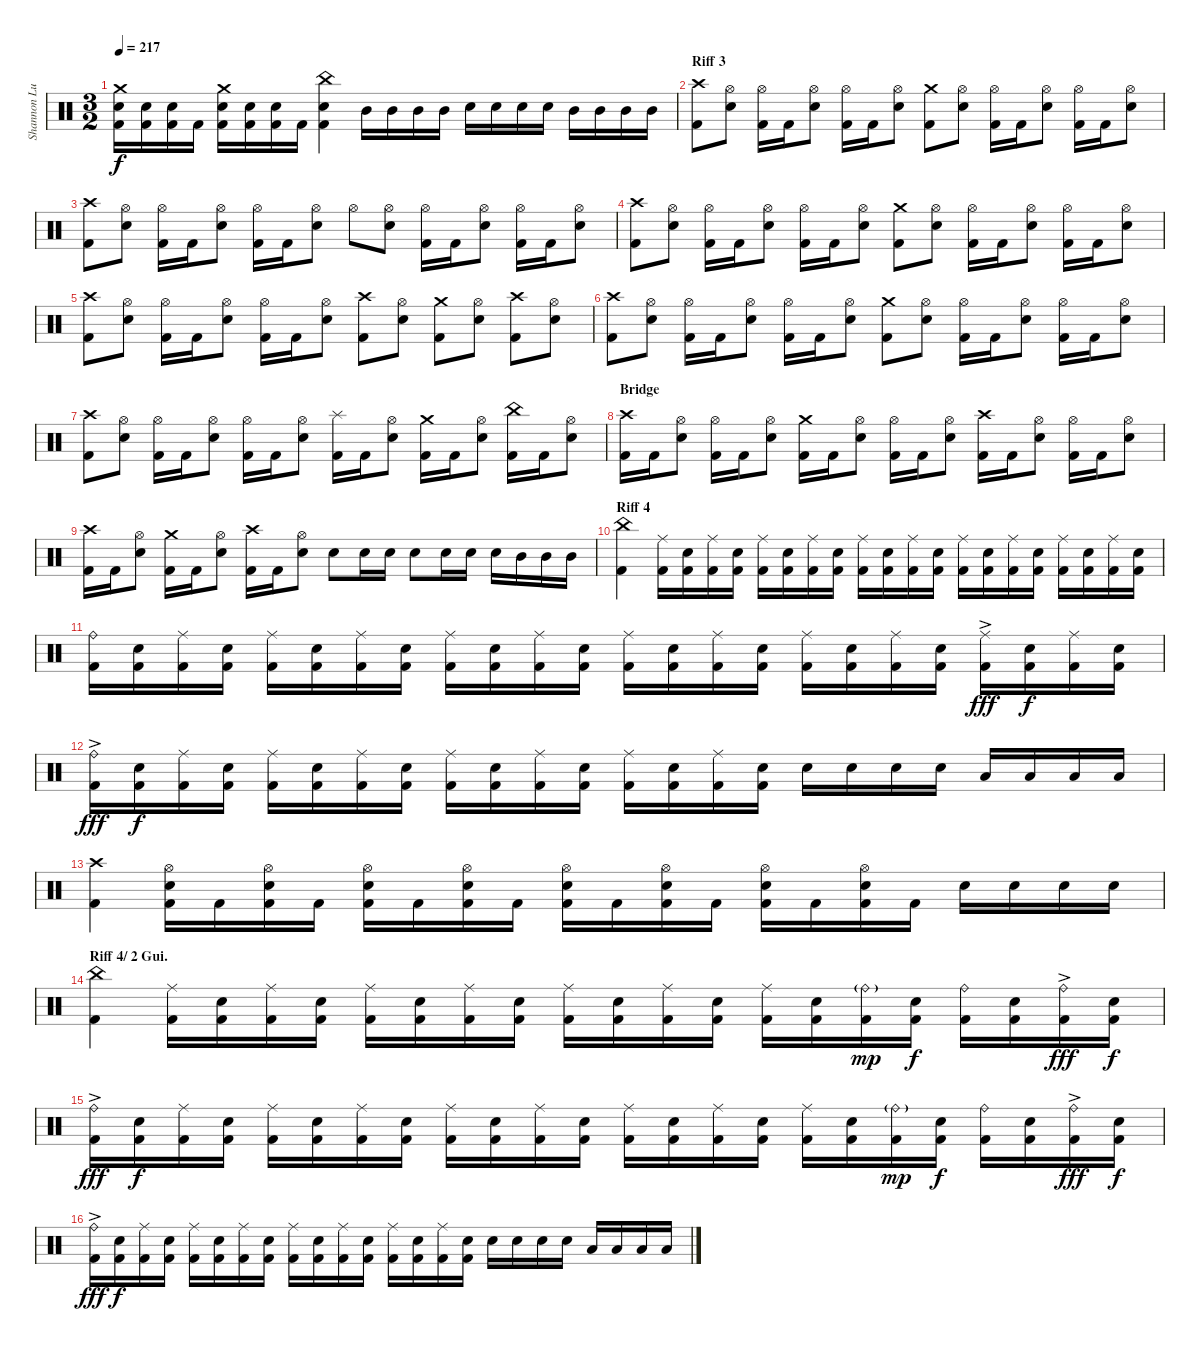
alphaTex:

\track ("Shannon Lucas (Drums)" "Shannon Lu") {instrument percussion}
\staff {score}
\articulation defaults
\ts (3 2)
\tempo 217
\clef neutral
\ks c
("Crash medium (hit)" "Snare (hit) 2" "Kick (hit) 2").16{dy f} ("Snare (hit) 2" "Kick (hit) 2").16 ("Snare (hit) 2" "Kick (hit) 2").16 "Kick (hit) 2".16 ("Crash medium (hit)" "Snare (hit) 2" "Kick (hit) 2").16 ("Snare (hit) 2" "Kick (hit) 2").16 ("Snare (hit) 2" "Kick (hit) 2").16 "Kick (hit) 2".16 ("China (hit)" "Snare (hit) 2" "Kick (hit) 2").4 "Mid Tom (hit)".16 "Mid Tom (hit)".16 "Mid Tom (hit)".16 "Mid Tom (hit)".16 "Snare (hit) 2".16 "Snare (hit) 2".16 "Snare (hit) 2".16 "Snare (hit) 2".16 "Mid Tom (hit)".16 "Mid Tom (hit)".16 "Mid Tom (hit)".16 "Mid Tom (hit)".16 |
\section ("" "Riff 3")
("Crash high (hit)" "Kick (hit) 2").8 ("Hi-Hat (open)" "Snare (hit) 2").8 ("Hi-Hat (open)" "Kick (hit) 2").16 "Kick (hit) 2".16 ("Hi-Hat (open)" "Snare (hit) 2").8 ("Hi-Hat (open)" "Kick (hit) 2").16 "Kick (hit) 2".16 ("Hi-Hat (open)" "Snare (hit) 2").8 ("Crash medium (hit)" "Kick (hit) 2").8 ("Hi-Hat (open)" "Snare (hit) 2").8 ("Hi-Hat (open)" "Kick (hit) 2").16 "Kick (hit) 2".16 ("Hi-Hat (open)" "Snare (hit) 2").8 ("Hi-Hat (open)" "Kick (hit) 2").16 "Kick (hit) 2".16 ("Hi-Hat (open)" "Snare (hit) 2").8 |
("Crash high (hit)" "Kick (hit) 2").8 ("Hi-Hat (open)" "Snare (hit) 2").8 ("Hi-Hat (open)" "Kick (hit) 2").16 "Kick (hit) 2".16 ("Hi-Hat (open)" "Snare (hit) 2").8 ("Hi-Hat (open)" "Kick (hit) 2").16 "Kick (hit) 2".16 ("Hi-Hat (open)" "Snare (hit) 2").8 "Hi-Hat (open)".8 ("Hi-Hat (open)" "Snare (hit) 2").8 ("Hi-Hat (open)" "Kick (hit) 2").16 "Kick (hit) 2".16 ("Hi-Hat (open)" "Snare (hit) 2").8 ("Hi-Hat (open)" "Kick (hit) 2").16 "Kick (hit) 2".16 ("Hi-Hat (open)" "Snare (hit) 2").8 |
("Crash high (hit)" "Kick (hit) 2").8 ("Hi-Hat (open)" "Snare (hit) 2").8 ("Hi-Hat (open)" "Kick (hit) 2").16 "Kick (hit) 2".16 ("Hi-Hat (open)" "Snare (hit) 2").8 ("Hi-Hat (open)" "Kick (hit) 2").16 "Kick (hit) 2".16 ("Hi-Hat (open)" "Snare (hit) 2").8 ("Crash medium (hit)" "Kick (hit) 2").8 ("Hi-Hat (open)" "Snare (hit) 2").8 ("Hi-Hat (open)" "Kick (hit) 2").16 "Kick (hit) 2".16 ("Hi-Hat (open)" "Snare (hit) 2").8 ("Hi-Hat (open)" "Kick (hit) 2").16 "Kick (hit) 2".16 ("Hi-Hat (open)" "Snare (hit) 2").8 |
("Crash high (hit)" "Kick (hit) 2").8 ("Hi-Hat (open)" "Snare (hit) 2").8 ("Hi-Hat (open)" "Kick (hit) 2").16 "Kick (hit) 2".16 ("Hi-Hat (open)" "Snare (hit) 2").8 ("Hi-Hat (open)" "Kick (hit) 2").16 "Kick (hit) 2".16 ("Hi-Hat (open)" "Snare (hit) 2").8 ("Crash high (hit)" "Kick (hit) 2").8 ("Hi-Hat (open)" "Snare (hit) 2").8 ("Crash medium (hit)" "Kick (hit) 2").8 ("Hi-Hat (open)" "Snare (hit) 2").8 ("Crash high (hit)" "Kick (hit) 2").8 ("Hi-Hat (open)" "Snare (hit) 2").8 |
("Crash high (hit)" "Kick (hit) 2").8 ("Hi-Hat (open)" "Snare (hit) 2").8 ("Hi-Hat (open)" "Kick (hit) 2").16 "Kick (hit) 2".16 ("Hi-Hat (open)" "Snare (hit) 2").8 ("Hi-Hat (open)" "Kick (hit) 2").16 "Kick (hit) 2".16 ("Hi-Hat (open)" "Snare (hit) 2").8 ("Crash medium (hit)" "Kick (hit) 2").8 ("Hi-Hat (open)" "Snare (hit) 2").8 ("Hi-Hat (open)" "Kick (hit) 2").16 "Kick (hit) 2".16 ("Hi-Hat (open)" "Snare (hit) 2").8 ("Hi-Hat (open)" "Kick (hit) 2").16 "Kick (hit) 2".16 ("Hi-Hat (open)" "Snare (hit) 2").8 |
("Crash high (hit)" "Kick (hit) 2").8 ("Hi-Hat (open)" "Snare (hit) 2").8 ("Hi-Hat (open)" "Kick (hit) 2").16 "Kick (hit) 2".16 ("Hi-Hat (open)" "Snare (hit) 2").8 ("Hi-Hat (open)" "Kick (hit) 2").16 "Kick (hit) 2".16 ("Hi-Hat (open)" "Snare (hit) 2").8 ("Splash (hit)" "Kick (hit) 2").16 "Kick (hit) 2".16 ("Hi-Hat (open)" "Snare (hit) 2").8 ("Crash medium (hit)" "Kick (hit) 2").16 "Kick (hit) 2".16 ("Hi-Hat (open)" "Snare (hit) 2").8 ("China (hit)" "Kick (hit) 2").16 "Kick (hit) 2".16 ("Hi-Hat (open)" "Snare (hit) 2").8 |
\section ("" "Bridge")
("Crash high (hit)" "Kick (hit) 2").16 "Kick (hit) 2".16 ("Hi-Hat (open)" "Snare (hit) 2").8 ("Hi-Hat (open)" "Kick (hit) 2").16 "Kick (hit) 2".16 ("Hi-Hat (open)" "Snare (hit) 2").8 ("Crash medium (hit)" "Kick (hit) 2").16 "Kick (hit) 2".16 ("Hi-Hat (open)" "Snare (hit) 2").8 ("Hi-Hat (open)" "Kick (hit) 2").16 "Kick (hit) 2".16 ("Hi-Hat (open)" "Snare (hit) 2").8 ("Crash high (hit)" "Kick (hit) 2").16 "Kick (hit) 2".16 ("Hi-Hat (open)" "Snare (hit) 2").8 ("Hi-Hat (open)" "Kick (hit) 2").16 "Kick (hit) 2".16 ("Hi-Hat (open)" "Snare (hit) 2").8 |
("Crash high (hit)" "Kick (hit) 2").16 "Kick (hit) 2".16 ("Hi-Hat (open)" "Snare (hit) 2").8 ("Crash medium (hit)" "Kick (hit) 2").16 "Kick (hit) 2".16 ("Hi-Hat (open)" "Snare (hit) 2").8 ("Crash high (hit)" "Kick (hit) 2").16 "Kick (hit) 2".16 ("Hi-Hat (open)" "Snare (hit) 2").8 "Snare (hit) 2".8 "Snare (hit) 2".16 "Snare (hit) 2".16 "Snare (hit) 2".8 "Snare (hit) 2".16 "Snare (hit) 2".16 "Snare (hit) 2".16 "Mid Tom (hit)".16 "Mid Tom (hit)".16 "Mid Tom (hit)".16 |
\section ("" "Riff 4")
("China (hit)" "Kick (hit) 2").4 ("Ride (middle)" "Kick (hit) 2").16 ("Snare (hit) 2" "Kick (hit) 2").16 ("Ride (middle)" "Kick (hit) 2").16 ("Snare (hit) 2" "Kick (hit) 2").16 ("Ride (middle)" "Kick (hit) 2").16 ("Snare (hit) 2" "Kick (hit) 2").16 ("Ride (middle)" "Kick (hit) 2").16 ("Snare (hit) 2" "Kick (hit) 2").16 ("Ride (middle)" "Kick (hit) 2").16 ("Snare (hit) 2" "Kick (hit) 2").16 ("Ride (middle)" "Kick (hit) 2").16 ("Snare (hit) 2" "Kick (hit) 2").16 ("Ride (middle)" "Kick (hit) 2").16 ("Snare (hit) 2" "Kick (hit) 2").16 ("Ride (middle)" "Kick (hit) 2").16 ("Snare (hit) 2" "Kick (hit) 2").16 ("Ride (middle)" "Kick (hit) 2").16 ("Snare (hit) 2" "Kick (hit) 2").16 ("Ride (middle)" "Kick (hit) 2").16 ("Snare (hit) 2" "Kick (hit) 2").16 |
("Ride (bell)" "Kick (hit) 2").16 ("Snare (hit) 2" "Kick (hit) 2").16 ("Ride (middle)" "Kick (hit) 2").16 ("Snare (hit) 2" "Kick (hit) 2").16 ("Ride (middle)" "Kick (hit) 2").16 ("Snare (hit) 2" "Kick (hit) 2").16 ("Ride (middle)" "Kick (hit) 2").16 ("Snare (hit) 2" "Kick (hit) 2").16 ("Ride (middle)" "Kick (hit) 2").16 ("Snare (hit) 2" "Kick (hit) 2").16 ("Ride (middle)" "Kick (hit) 2").16 ("Snare (hit) 2" "Kick (hit) 2").16 ("Ride (middle)" "Kick (hit) 2").16 ("Snare (hit) 2" "Kick (hit) 2").16 ("Ride (middle)" "Kick (hit) 2").16 ("Snare (hit) 2" "Kick (hit) 2").16 ("Ride (middle)" "Kick (hit) 2").16 ("Snare (hit) 2" "Kick (hit) 2").16 ("Ride (middle)" "Kick (hit) 2").16 ("Snare (hit) 2" "Kick (hit) 2").16 ("Ride (middle)"{ac} "Kick (hit) 2").16{dy fff} ("Snare (hit) 2" "Kick (hit) 2").16{dy f} ("Ride (middle)" "Kick (hit) 2").16 ("Snare (hit) 2" "Kick (hit) 2").16 |
("Ride (bell)"{ac} "Kick (hit) 2").16{dy fff} ("Snare (hit) 2" "Kick (hit) 2").16{dy f} ("Ride (middle)" "Kick (hit) 2").16 ("Snare (hit) 2" "Kick (hit) 2").16 ("Ride (middle)" "Kick (hit) 2").16 ("Snare (hit) 2" "Kick (hit) 2").16 ("Ride (middle)" "Kick (hit) 2").16 ("Snare (hit) 2" "Kick (hit) 2").16 ("Ride (middle)" "Kick (hit) 2").16 ("Snare (hit) 2" "Kick (hit) 2").16 ("Ride (middle)" "Kick (hit) 2").16 ("Snare (hit) 2" "Kick (hit) 2").16 ("Ride (middle)" "Kick (hit) 2").16 ("Snare (hit) 2" "Kick (hit) 2").16 ("Ride (middle)" "Kick (hit) 2").16 ("Snare (hit) 2" "Kick (hit) 2").16 "Snare (hit) 2".16 "Snare (hit) 2".16 "Snare (hit) 2".16 "Snare (hit) 2".16 "Low Tom (hit)".16 "Low Tom (hit)".16 "Low Tom (hit)".16 "Low Tom (hit)".16 |
("Crash high (hit)" "Kick (hit) 2").4 ("Hi-Hat (open)" "Snare (hit) 2" "Kick (hit) 2").16 "Kick (hit) 2".16 ("Hi-Hat (open)" "Snare (hit) 2" "Kick (hit) 2").16 "Kick (hit) 2".16 ("Hi-Hat (open)" "Snare (hit) 2" "Kick (hit) 2").16 "Kick (hit) 2".16 ("Hi-Hat (open)" "Snare (hit) 2" "Kick (hit) 2").16 "Kick (hit) 2".16 ("Hi-Hat (open)" "Snare (hit) 2" "Kick (hit) 2").16 "Kick (hit) 2".16 ("Hi-Hat (open)" "Snare (hit) 2" "Kick (hit) 2").16 "Kick (hit) 2".16 ("Hi-Hat (open)" "Snare (hit) 2" "Kick (hit) 2").16 "Kick (hit) 2".16 ("Hi-Hat (open)" "Snare (hit) 2" "Kick (hit) 2").16 "Kick (hit) 2".16 "Snare (hit) 2".16 "Snare (hit) 2".16 "Snare (hit) 2".16 "Snare (hit) 2".16 |
\section ("" "Riff 4/ 2 Gui.")
("China (hit)" "Kick (hit) 2").4 ("Ride (middle)" "Kick (hit) 2").16 ("Snare (hit) 2" "Kick (hit) 2").16 ("Ride (middle)" "Kick (hit) 2").16 ("Snare (hit) 2" "Kick (hit) 2").16 ("Ride (middle)" "Kick (hit) 2").16 ("Snare (hit) 2" "Kick (hit) 2").16 ("Ride (middle)" "Kick (hit) 2").16 ("Snare (hit) 2" "Kick (hit) 2").16 ("Ride (middle)" "Kick (hit) 2").16 ("Snare (hit) 2" "Kick (hit) 2").16 ("Ride (middle)" "Kick (hit) 2").16 ("Snare (hit) 2" "Kick (hit) 2").16 ("Ride (middle)" "Kick (hit) 2").16 ("Snare (hit) 2" "Kick (hit) 2").16 ("Ride (bell)"{g} "Kick (hit) 2").16{dy mp} ("Snare (hit) 2" "Kick (hit) 2").16{dy f} ("Ride (bell)" "Kick (hit) 2").16 ("Snare (hit) 2" "Kick (hit) 2").16 ("Ride (bell)"{ac} "Kick (hit) 2").16{dy fff} ("Snare (hit) 2" "Kick (hit) 2").16{dy f} |
("Ride (bell)"{ac} "Kick (hit) 2").16{dy fff} ("Snare (hit) 2" "Kick (hit) 2").16{dy f} ("Ride (middle)" "Kick (hit) 2").16 ("Snare (hit) 2" "Kick (hit) 2").16 ("Ride (middle)" "Kick (hit) 2").16 ("Snare (hit) 2" "Kick (hit) 2").16 ("Ride (middle)" "Kick (hit) 2").16 ("Snare (hit) 2" "Kick (hit) 2").16 ("Ride (middle)" "Kick (hit) 2").16 ("Snare (hit) 2" "Kick (hit) 2").16 ("Ride (middle)" "Kick (hit) 2").16 ("Snare (hit) 2" "Kick (hit) 2").16 ("Ride (middle)" "Kick (hit) 2").16 ("Snare (hit) 2" "Kick (hit) 2").16 ("Ride (middle)" "Kick (hit) 2").16 ("Snare (hit) 2" "Kick (hit) 2").16 ("Ride (middle)" "Kick (hit) 2").16 ("Snare (hit) 2" "Kick (hit) 2").16 ("Ride (bell)"{g} "Kick (hit) 2").16{dy mp} ("Snare (hit) 2" "Kick (hit) 2").16{dy f} ("Ride (bell)" "Kick (hit) 2").16 ("Snare (hit) 2" "Kick (hit) 2").16 ("Ride (bell)"{ac} "Kick (hit) 2").16{dy fff} ("Snare (hit) 2" "Kick (hit) 2").16{dy f} |
("Ride (bell)"{ac} "Kick (hit) 2").16{dy fff} ("Snare (hit) 2" "Kick (hit) 2").16{dy f} ("Ride (middle)" "Kick (hit) 2").16 ("Snare (hit) 2" "Kick (hit) 2").16 ("Ride (middle)" "Kick (hit) 2").16 ("Snare (hit) 2" "Kick (hit) 2").16 ("Ride (middle)" "Kick (hit) 2").16 ("Snare (hit) 2" "Kick (hit) 2").16 ("Ride (middle)" "Kick (hit) 2").16 ("Snare (hit) 2" "Kick (hit) 2").16 ("Ride (middle)" "Kick (hit) 2").16 ("Snare (hit) 2" "Kick (hit) 2").16 ("Ride (middle)" "Kick (hit) 2").16 ("Snare (hit) 2" "Kick (hit) 2").16 ("Ride (middle)" "Kick (hit) 2").16 ("Snare (hit) 2" "Kick (hit) 2").16 "Snare (hit) 2".16 "Snare (hit) 2".16 "Snare (hit) 2".16 "Snare (hit) 2".16 "Low Tom (hit)".16 "Low Tom (hit)".16 "Low Tom (hit)".16 "Low Tom (hit)".16
